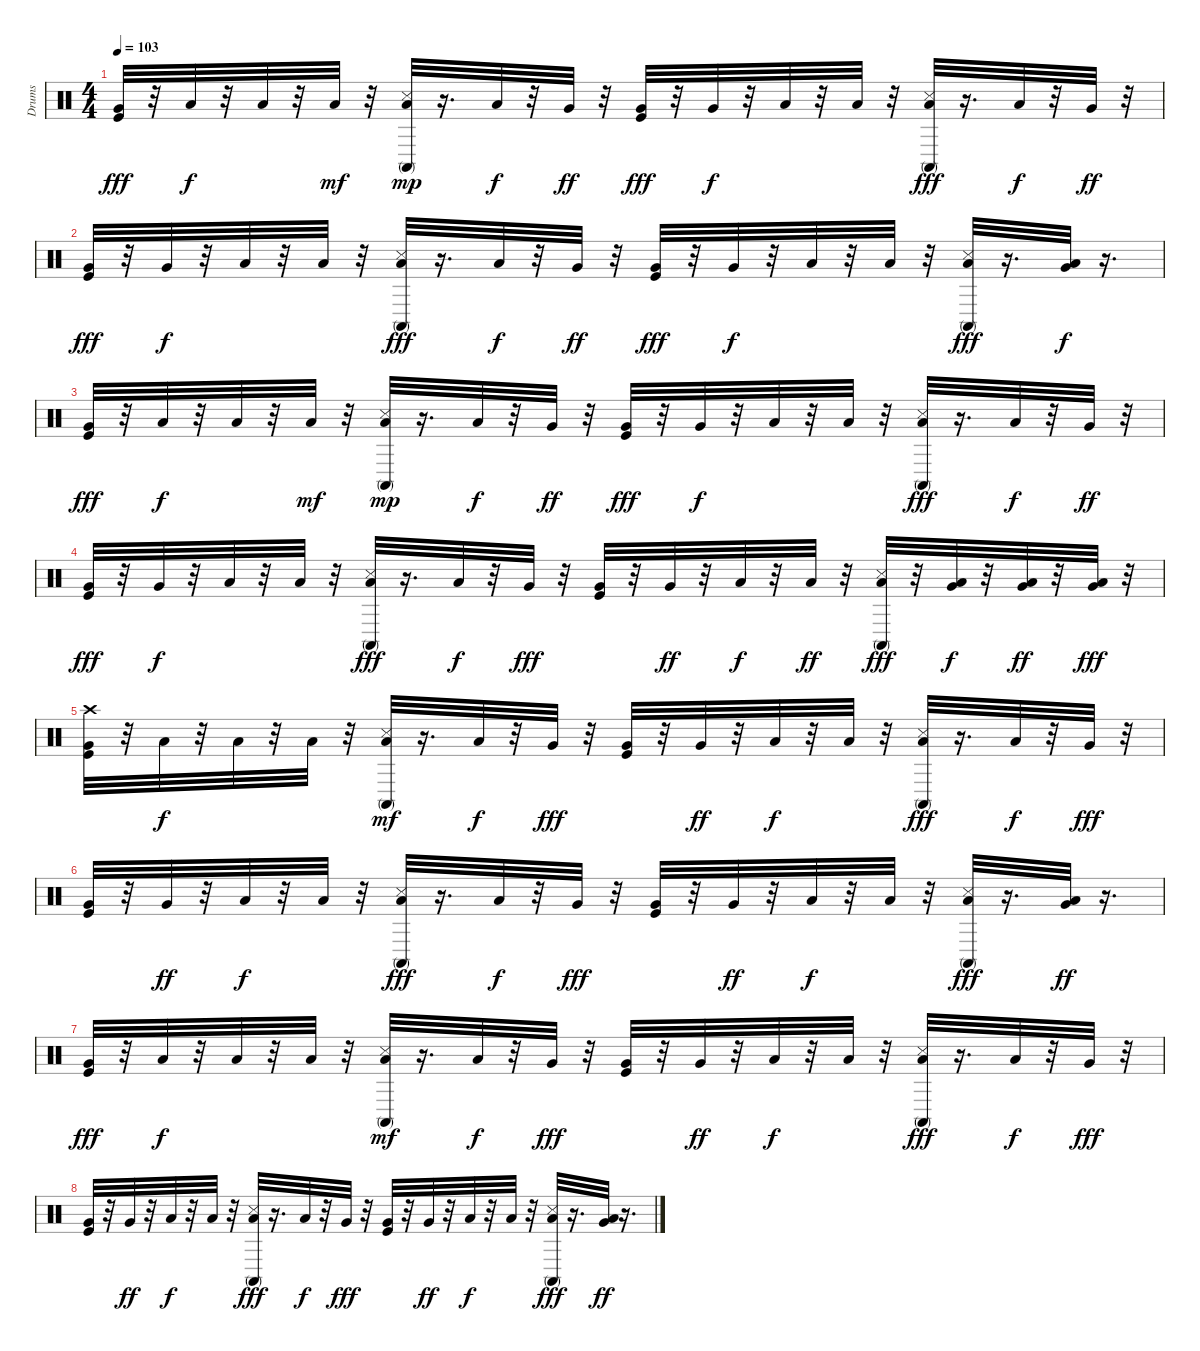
\track ("Drums" "Drums") {instrument percussion}
\staff {score}
\articulation defaults
\ts (4 4)
\tempo 103
\clef neutral
\ks c
("Very Low Tom (hit)" "Kick (hit)").32{dy fff} r.32 "Low Floor Tom (hit)".32{dy f} r.32 "Low Floor Tom (hit)".32 r.32 "Low Floor Tom (hit)".32{dy mf} r.32 ("Conga high (mute)" "Snare (side stick) 3" "Low Floor Tom (hit)").32{dy mp} r.16{d} "Low Floor Tom (hit)".32{dy f} r.32 "Very Low Tom (hit)".32{dy ff} r.32 ("Very Low Tom (hit)" "Kick (hit)").32{dy fff} r.32 "Very Low Tom (hit)".32{dy f} r.32 "Low Floor Tom (hit)".32 r.32 "Low Floor Tom (hit)".32 r.32 ("Conga high (mute)" "Low Floor Tom (hit)" "Snare (side stick) 3").32{dy fff} r.16{d} "Low Floor Tom (hit)".32{dy f} r.32 "Very Low Tom (hit)".32{dy ff} r.32 |
("Very Low Tom (hit)" "Kick (hit)").32{dy fff} r.32 "Very Low Tom (hit)".32{dy f} r.32 "Low Floor Tom (hit)".32 r.32 "Low Floor Tom (hit)".32 r.32 ("Conga high (mute)" "Low Floor Tom (hit)" "Snare (side stick) 3").32{dy fff} r.16{d} "Low Floor Tom (hit)".32{dy f} r.32 "Very Low Tom (hit)".32{dy ff} r.32 ("Very Low Tom (hit)" "Kick (hit)").32{dy fff} r.32 "Very Low Tom (hit)".32{dy f} r.32 "Low Floor Tom (hit)".32 r.32 "Low Floor Tom (hit)".32 r.32 ("Conga high (mute)" "Low Floor Tom (hit)" "Snare (side stick) 3").32{dy fff} r.16{d} ("Low Floor Tom (hit)" "Very Low Tom (hit)").32{dy f} r.16{d} |
("Very Low Tom (hit)" "Kick (hit)").32{dy fff} r.32 "Low Floor Tom (hit)".32{dy f} r.32 "Low Floor Tom (hit)".32 r.32 "Low Floor Tom (hit)".32{dy mf} r.32 ("Conga high (mute)" "Snare (side stick) 3" "Low Floor Tom (hit)").32{dy mp} r.16{d} "Low Floor Tom (hit)".32{dy f} r.32 "Very Low Tom (hit)".32{dy ff} r.32 ("Very Low Tom (hit)" "Kick (hit)").32{dy fff} r.32 "Very Low Tom (hit)".32{dy f} r.32 "Low Floor Tom (hit)".32 r.32 "Low Floor Tom (hit)".32 r.32 ("Conga high (mute)" "Low Floor Tom (hit)" "Snare (side stick) 3").32{dy fff} r.16{d} "Low Floor Tom (hit)".32{dy f} r.32 "Very Low Tom (hit)".32{dy ff} r.32 |
("Very Low Tom (hit)" "Kick (hit)").32{dy fff} r.32 "Very Low Tom (hit)".32{dy f} r.32 "Low Floor Tom (hit)".32 r.32 "Low Floor Tom (hit)".32 r.32 ("Conga high (mute)" "Low Floor Tom (hit)" "Snare (side stick) 3").32{dy fff} r.16{d} "Low Floor Tom (hit)".32{dy f} r.32 "Very Low Tom (hit)".32{dy fff} r.32 ("Very Low Tom (hit)" "Kick (hit)").32 r.32 "Very Low Tom (hit)".32{dy ff} r.32 "Low Floor Tom (hit)".32{dy f} r.32 "Low Floor Tom (hit)".32{dy ff} r.32 ("Conga high (mute)" "Low Floor Tom (hit)" "Snare (side stick) 3").32{dy fff} r.32 ("Very Low Tom (hit)" "Low Floor Tom (hit)").32{dy f} r.32 ("Very Low Tom (hit)" "Low Floor Tom (hit)").32{dy ff} r.32 ("Very Low Tom (hit)" "Low Floor Tom (hit)").32{dy fff} r.32 |
("Crash high (hit)" "Very Low Tom (hit)" "Kick (hit)").32 r.32 "Low Floor Tom (hit)".32{dy f} r.32 "Low Floor Tom (hit)".32 r.32 "Low Floor Tom (hit)".32 r.32 ("Conga high (mute)" "Snare (side stick) 3" "Low Floor Tom (hit)").32{dy mf} r.16{d} "Low Floor Tom (hit)".32{dy f} r.32 "Very Low Tom (hit)".32{dy fff} r.32 ("Very Low Tom (hit)" "Kick (hit)").32 r.32 "Very Low Tom (hit)".32{dy ff} r.32 "Low Floor Tom (hit)".32{dy f} r.32 "Low Floor Tom (hit)".32 r.32 ("Conga high (mute)" "Low Floor Tom (hit)" "Snare (side stick) 3").32{dy fff} r.16{d} "Low Floor Tom (hit)".32{dy f} r.32 "Very Low Tom (hit)".32{dy fff} r.32 |
("Very Low Tom (hit)" "Kick (hit)").32 r.32 "Very Low Tom (hit)".32{dy ff} r.32 "Low Floor Tom (hit)".32{dy f} r.32 "Low Floor Tom (hit)".32 r.32 ("Conga high (mute)" "Low Floor Tom (hit)" "Snare (side stick) 3").32{dy fff} r.16{d} "Low Floor Tom (hit)".32{dy f} r.32 "Very Low Tom (hit)".32{dy fff} r.32 ("Very Low Tom (hit)" "Kick (hit)").32 r.32 "Very Low Tom (hit)".32{dy ff} r.32 "Low Floor Tom (hit)".32{dy f} r.32 "Low Floor Tom (hit)".32 r.32 ("Conga high (mute)" "Low Floor Tom (hit)" "Snare (side stick) 3").32{dy fff} r.16{d} ("Low Floor Tom (hit)" "Very Low Tom (hit)").32{dy ff} r.16{d} |
("Very Low Tom (hit)" "Kick (hit)").32{dy fff} r.32 "Low Floor Tom (hit)".32{dy f} r.32 "Low Floor Tom (hit)".32 r.32 "Low Floor Tom (hit)".32 r.32 ("Conga high (mute)" "Snare (side stick) 3" "Low Floor Tom (hit)").32{dy mf} r.16{d} "Low Floor Tom (hit)".32{dy f} r.32 "Very Low Tom (hit)".32{dy fff} r.32 ("Very Low Tom (hit)" "Kick (hit)").32 r.32 "Very Low Tom (hit)".32{dy ff} r.32 "Low Floor Tom (hit)".32{dy f} r.32 "Low Floor Tom (hit)".32 r.32 ("Conga high (mute)" "Low Floor Tom (hit)" "Snare (side stick) 3").32{dy fff} r.16{d} "Low Floor Tom (hit)".32{dy f} r.32 "Very Low Tom (hit)".32{dy fff} r.32 |
("Very Low Tom (hit)" "Kick (hit)").32 r.32 "Very Low Tom (hit)".32{dy ff} r.32 "Low Floor Tom (hit)".32{dy f} r.32 "Low Floor Tom (hit)".32 r.32 ("Conga high (mute)" "Low Floor Tom (hit)" "Snare (side stick) 3").32{dy fff} r.16{d} "Low Floor Tom (hit)".32{dy f} r.32 "Very Low Tom (hit)".32{dy fff} r.32 ("Very Low Tom (hit)" "Kick (hit)").32 r.32 "Very Low Tom (hit)".32{dy ff} r.32 "Low Floor Tom (hit)".32{dy f} r.32 "Low Floor Tom (hit)".32 r.32 ("Conga high (mute)" "Low Floor Tom (hit)" "Snare (side stick) 3").32{dy fff} r.16{d} ("Low Floor Tom (hit)" "Very Low Tom (hit)").32{dy ff} r.16{d}
